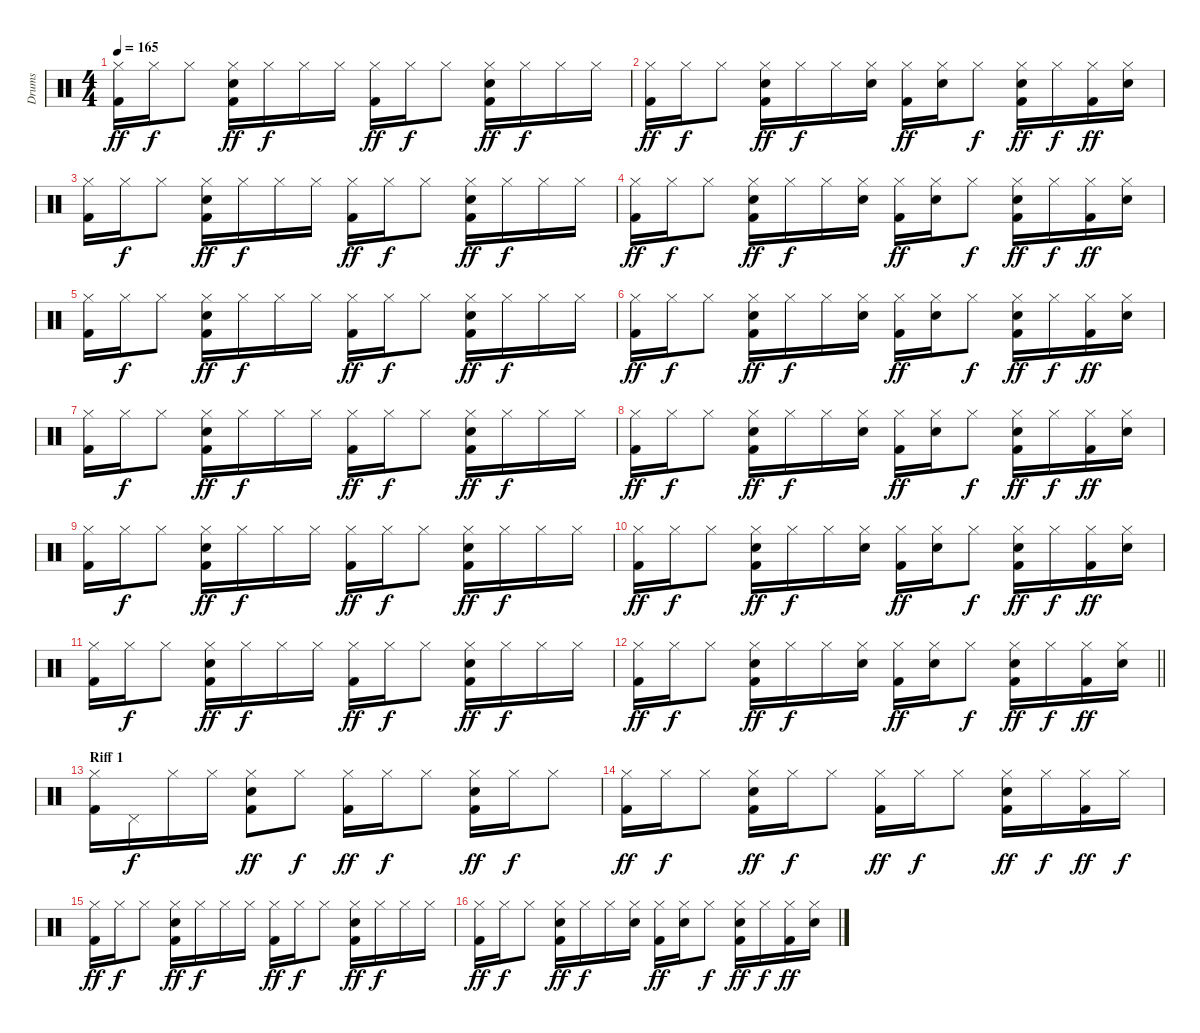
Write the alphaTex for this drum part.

\track ("Drums" "Drums") {instrument percussion}
\staff {score}
\articulation defaults
\ts (4 4)
\tempo 165
\clef neutral
\ks c
("Kick (hit) 2" "Hi-Hat (closed)").16{dy ff} "Hi-Hat (closed)".16{dy f} "Hi-Hat (closed)".8 ("Kick (hit) 2" "Snare (hit) 2" "Hi-Hat (closed)").16{dy ff} "Hi-Hat (closed)".16{dy f} "Hi-Hat (closed)".16 "Hi-Hat (closed)".16 ("Kick (hit) 2" "Hi-Hat (closed)").16{dy ff} "Hi-Hat (closed)".16{dy f} "Hi-Hat (closed)".8 ("Kick (hit) 2" "Snare (hit) 2" "Hi-Hat (closed)").16{dy ff} "Hi-Hat (closed)".16{dy f} "Hi-Hat (closed)".16 "Hi-Hat (closed)".16 |
("Kick (hit) 2" "Hi-Hat (closed)").16{dy ff} "Hi-Hat (closed)".16{dy f} "Hi-Hat (closed)".8 ("Kick (hit) 2" "Snare (hit) 2" "Hi-Hat (closed)").16{dy ff} "Hi-Hat (closed)".16{dy f} "Hi-Hat (closed)".16 ("Snare (hit) 2" "Hi-Hat (closed)").16 ("Kick (hit) 2" "Hi-Hat (closed)").16{dy ff} ("Snare (hit) 2" "Hi-Hat (closed)").16 "Hi-Hat (closed)".8{dy f} ("Kick (hit) 2" "Snare (hit) 2" "Hi-Hat (closed)").16{dy ff} "Hi-Hat (closed)".16{dy f} ("Kick (hit) 2" "Hi-Hat (closed)").16{dy ff} ("Snare (hit) 2" "Hi-Hat (closed)").16 |
("Kick (hit) 2" "Hi-Hat (closed)").16 "Hi-Hat (closed)".16{dy f} "Hi-Hat (closed)".8 ("Kick (hit) 2" "Snare (hit) 2" "Hi-Hat (closed)").16{dy ff} "Hi-Hat (closed)".16{dy f} "Hi-Hat (closed)".16 "Hi-Hat (closed)".16 ("Kick (hit) 2" "Hi-Hat (closed)").16{dy ff} "Hi-Hat (closed)".16{dy f} "Hi-Hat (closed)".8 ("Kick (hit) 2" "Snare (hit) 2" "Hi-Hat (closed)").16{dy ff} "Hi-Hat (closed)".16{dy f} "Hi-Hat (closed)".16 "Hi-Hat (closed)".16 |
("Kick (hit) 2" "Hi-Hat (closed)").16{dy ff} "Hi-Hat (closed)".16{dy f} "Hi-Hat (closed)".8 ("Kick (hit) 2" "Snare (hit) 2" "Hi-Hat (closed)").16{dy ff} "Hi-Hat (closed)".16{dy f} "Hi-Hat (closed)".16 ("Snare (hit) 2" "Hi-Hat (closed)").16 ("Kick (hit) 2" "Hi-Hat (closed)").16{dy ff} ("Snare (hit) 2" "Hi-Hat (closed)").16 "Hi-Hat (closed)".8{dy f} ("Kick (hit) 2" "Snare (hit) 2" "Hi-Hat (closed)").16{dy ff} "Hi-Hat (closed)".16{dy f} ("Kick (hit) 2" "Hi-Hat (closed)").16{dy ff} ("Snare (hit) 2" "Hi-Hat (closed)").16 |
("Kick (hit) 2" "Hi-Hat (closed)").16 "Hi-Hat (closed)".16{dy f} "Hi-Hat (closed)".8 ("Kick (hit) 2" "Snare (hit) 2" "Hi-Hat (closed)").16{dy ff} "Hi-Hat (closed)".16{dy f} "Hi-Hat (closed)".16 "Hi-Hat (closed)".16 ("Kick (hit) 2" "Hi-Hat (closed)").16{dy ff} "Hi-Hat (closed)".16{dy f} "Hi-Hat (closed)".8 ("Kick (hit) 2" "Snare (hit) 2" "Hi-Hat (closed)").16{dy ff} "Hi-Hat (closed)".16{dy f} "Hi-Hat (closed)".16 "Hi-Hat (closed)".16 |
("Kick (hit) 2" "Hi-Hat (closed)").16{dy ff} "Hi-Hat (closed)".16{dy f} "Hi-Hat (closed)".8 ("Kick (hit) 2" "Snare (hit) 2" "Hi-Hat (closed)").16{dy ff} "Hi-Hat (closed)".16{dy f} "Hi-Hat (closed)".16 ("Snare (hit) 2" "Hi-Hat (closed)").16 ("Kick (hit) 2" "Hi-Hat (closed)").16{dy ff} ("Snare (hit) 2" "Hi-Hat (closed)").16 "Hi-Hat (closed)".8{dy f} ("Kick (hit) 2" "Snare (hit) 2" "Hi-Hat (closed)").16{dy ff} "Hi-Hat (closed)".16{dy f} ("Kick (hit) 2" "Hi-Hat (closed)").16{dy ff} ("Snare (hit) 2" "Hi-Hat (closed)").16 |
("Kick (hit) 2" "Hi-Hat (closed)").16 "Hi-Hat (closed)".16{dy f} "Hi-Hat (closed)".8 ("Kick (hit) 2" "Snare (hit) 2" "Hi-Hat (closed)").16{dy ff} "Hi-Hat (closed)".16{dy f} "Hi-Hat (closed)".16 "Hi-Hat (closed)".16 ("Kick (hit) 2" "Hi-Hat (closed)").16{dy ff} "Hi-Hat (closed)".16{dy f} "Hi-Hat (closed)".8 ("Kick (hit) 2" "Snare (hit) 2" "Hi-Hat (closed)").16{dy ff} "Hi-Hat (closed)".16{dy f} "Hi-Hat (closed)".16 "Hi-Hat (closed)".16 |
("Kick (hit) 2" "Hi-Hat (closed)").16{dy ff} "Hi-Hat (closed)".16{dy f} "Hi-Hat (closed)".8 ("Kick (hit) 2" "Snare (hit) 2" "Hi-Hat (closed)").16{dy ff} "Hi-Hat (closed)".16{dy f} "Hi-Hat (closed)".16 ("Snare (hit) 2" "Hi-Hat (closed)").16 ("Kick (hit) 2" "Hi-Hat (closed)").16{dy ff} ("Snare (hit) 2" "Hi-Hat (closed)").16 "Hi-Hat (closed)".8{dy f} ("Kick (hit) 2" "Snare (hit) 2" "Hi-Hat (closed)").16{dy ff} "Hi-Hat (closed)".16{dy f} ("Kick (hit) 2" "Hi-Hat (closed)").16{dy ff} ("Snare (hit) 2" "Hi-Hat (closed)").16 |
("Kick (hit) 2" "Hi-Hat (closed)").16 "Hi-Hat (closed)".16{dy f} "Hi-Hat (closed)".8 ("Kick (hit) 2" "Snare (hit) 2" "Hi-Hat (closed)").16{dy ff} "Hi-Hat (closed)".16{dy f} "Hi-Hat (closed)".16 "Hi-Hat (closed)".16 ("Kick (hit) 2" "Hi-Hat (closed)").16{dy ff} "Hi-Hat (closed)".16{dy f} "Hi-Hat (closed)".8 ("Kick (hit) 2" "Snare (hit) 2" "Hi-Hat (closed)").16{dy ff} "Hi-Hat (closed)".16{dy f} "Hi-Hat (closed)".16 "Hi-Hat (closed)".16 |
("Kick (hit) 2" "Hi-Hat (closed)").16{dy ff} "Hi-Hat (closed)".16{dy f} "Hi-Hat (closed)".8 ("Kick (hit) 2" "Snare (hit) 2" "Hi-Hat (closed)").16{dy ff} "Hi-Hat (closed)".16{dy f} "Hi-Hat (closed)".16 ("Snare (hit) 2" "Hi-Hat (closed)").16 ("Kick (hit) 2" "Hi-Hat (closed)").16{dy ff} ("Snare (hit) 2" "Hi-Hat (closed)").16 "Hi-Hat (closed)".8{dy f} ("Kick (hit) 2" "Snare (hit) 2" "Hi-Hat (closed)").16{dy ff} "Hi-Hat (closed)".16{dy f} ("Kick (hit) 2" "Hi-Hat (closed)").16{dy ff} ("Snare (hit) 2" "Hi-Hat (closed)").16 |
("Kick (hit) 2" "Hi-Hat (closed)").16 "Hi-Hat (closed)".16{dy f} "Hi-Hat (closed)".8 ("Kick (hit) 2" "Snare (hit) 2" "Hi-Hat (closed)").16{dy ff} "Hi-Hat (closed)".16{dy f} "Hi-Hat (closed)".16 "Hi-Hat (closed)".16 ("Kick (hit) 2" "Hi-Hat (closed)").16{dy ff} "Hi-Hat (closed)".16{dy f} "Hi-Hat (closed)".8 ("Kick (hit) 2" "Snare (hit) 2" "Hi-Hat (closed)").16{dy ff} "Hi-Hat (closed)".16{dy f} "Hi-Hat (closed)".16 "Hi-Hat (closed)".16 |
\barLineRight lightlight
("Kick (hit) 2" "Hi-Hat (closed)").16{dy ff} "Hi-Hat (closed)".16{dy f} "Hi-Hat (closed)".8 ("Kick (hit) 2" "Snare (hit) 2" "Hi-Hat (closed)").16{dy ff} "Hi-Hat (closed)".16{dy f} "Hi-Hat (closed)".16 ("Snare (hit) 2" "Hi-Hat (closed)").16 ("Kick (hit) 2" "Hi-Hat (closed)").16{dy ff} ("Snare (hit) 2" "Hi-Hat (closed)").16 "Hi-Hat (closed)".8{dy f} ("Kick (hit) 2" "Snare (hit) 2" "Hi-Hat (closed)").16{dy ff} "Hi-Hat (closed)".16{dy f} ("Kick (hit) 2" "Hi-Hat (closed)").16{dy ff} ("Snare (hit) 2" "Hi-Hat (closed)").16 |
\section ("" "Riff 1")
("Kick (hit) 2" "Hi-Hat (closed)").16 "Pedal Hi-Hat (hit)".16{dy f} "Hi-Hat (closed)".16 "Hi-Hat (closed)".16 ("Kick (hit) 2" "Snare (hit) 2" "Hi-Hat (closed)").8{dy ff} "Hi-Hat (closed)".8{dy f} ("Kick (hit) 2" "Hi-Hat (closed)").16{dy ff} "Hi-Hat (closed)".16{dy f} "Hi-Hat (closed)".8 ("Kick (hit) 2" "Snare (hit) 2" "Hi-Hat (closed)").16{dy ff} "Hi-Hat (closed)".16{dy f} "Hi-Hat (closed)".8 |
("Kick (hit) 2" "Hi-Hat (closed)").16{dy ff} "Hi-Hat (closed)".16{dy f} "Hi-Hat (closed)".8 ("Kick (hit) 2" "Snare (hit) 2" "Hi-Hat (closed)").16{dy ff} "Hi-Hat (closed)".16{dy f} "Hi-Hat (closed)".8 ("Kick (hit) 2" "Hi-Hat (closed)").16{dy ff} "Hi-Hat (closed)".16{dy f} "Hi-Hat (closed)".8 ("Kick (hit) 2" "Snare (hit) 2" "Hi-Hat (closed)").16{dy ff} "Hi-Hat (closed)".16{dy f} ("Kick (hit) 2" "Hi-Hat (closed)").16{dy ff} "Hi-Hat (closed)".16{dy f} |
("Kick (hit) 2" "Hi-Hat (closed)").16{dy ff} "Hi-Hat (closed)".16{dy f} "Hi-Hat (closed)".8 ("Kick (hit) 2" "Snare (hit) 2" "Hi-Hat (closed)").16{dy ff} "Hi-Hat (closed)".16{dy f} "Hi-Hat (closed)".16 "Hi-Hat (closed)".16 ("Kick (hit) 2" "Hi-Hat (closed)").16{dy ff} "Hi-Hat (closed)".16{dy f} "Hi-Hat (closed)".8 ("Kick (hit) 2" "Snare (hit) 2" "Hi-Hat (closed)").16{dy ff} "Hi-Hat (closed)".16{dy f} "Hi-Hat (closed)".16 "Hi-Hat (closed)".16 |
("Kick (hit) 2" "Hi-Hat (closed)").16{dy ff} "Hi-Hat (closed)".16{dy f} "Hi-Hat (closed)".8 ("Kick (hit) 2" "Snare (hit) 2" "Hi-Hat (closed)").16{dy ff} "Hi-Hat (closed)".16{dy f} "Hi-Hat (closed)".16 ("Snare (hit) 2" "Hi-Hat (closed)").16 ("Kick (hit) 2" "Hi-Hat (closed)").16{dy ff} ("Snare (hit) 2" "Hi-Hat (closed)").16 "Hi-Hat (closed)".8{dy f} ("Kick (hit) 2" "Snare (hit) 2" "Hi-Hat (closed)").16{dy ff} "Hi-Hat (closed)".16{dy f} ("Kick (hit) 2" "Hi-Hat (closed)").16{dy ff} ("Snare (hit) 2" "Hi-Hat (closed)").16
